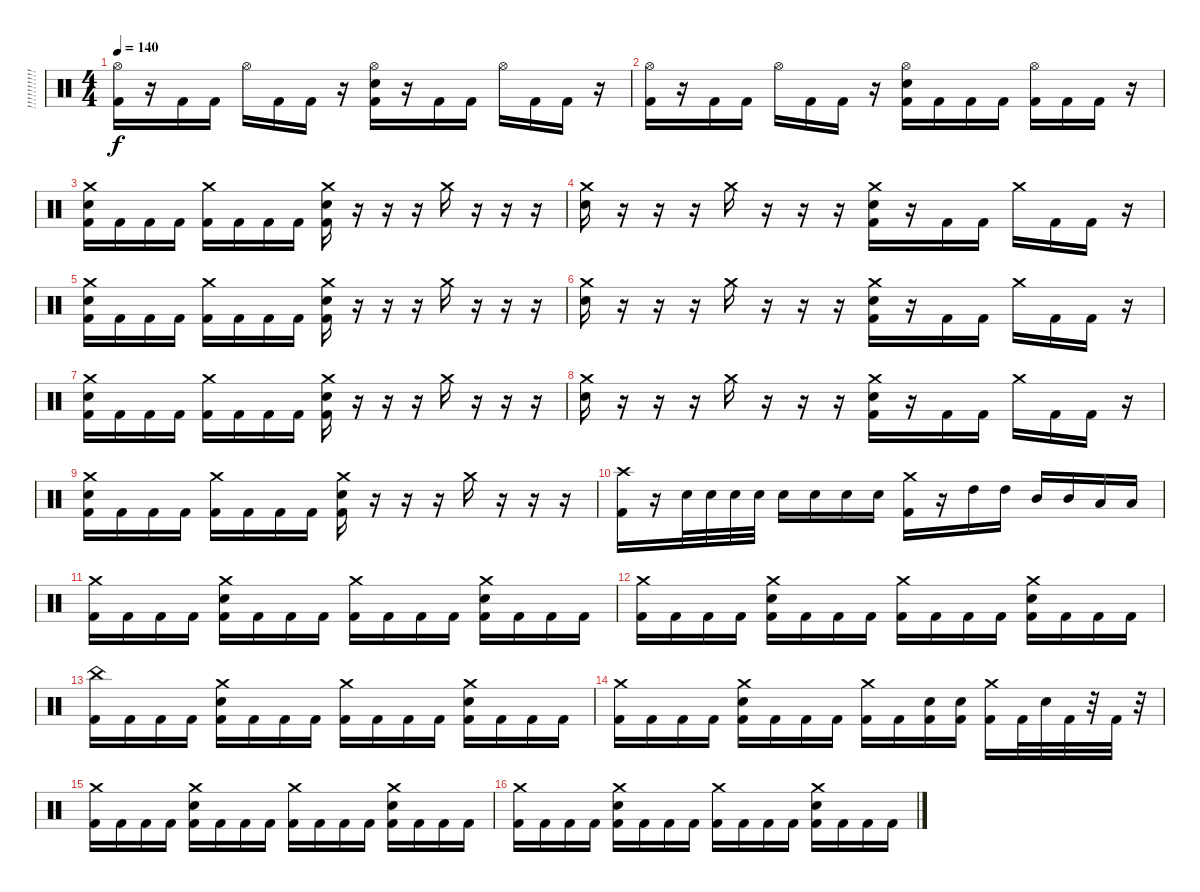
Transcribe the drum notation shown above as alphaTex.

\track ("!!!!!!!!!!!! 4" "!!!!!!!!!!") {instrument percussion}
\staff {score}
\articulation defaults
\ts (4 4)
\tempo 140
\clef neutral
\ks c
("Hi-Hat (open)" "Kick (hit) 2").16{dy f} r.16 "Kick (hit) 2".16 "Kick (hit) 2".16 "Hi-Hat (open)".16 "Kick (hit) 2".16 "Kick (hit) 2".16 r.16 ("Hi-Hat (open)" "Electric Snare (hit)" "Kick (hit) 2").16 r.16 "Kick (hit) 2".16 "Kick (hit) 2".16 "Hi-Hat (open)".16 "Kick (hit) 2".16 "Kick (hit) 2".16 r.16 |
("Hi-Hat (open)" "Kick (hit) 2").16 r.16 "Kick (hit) 2".16 "Kick (hit) 2".16 "Hi-Hat (open)".16 "Kick (hit) 2".16 "Kick (hit) 2".16 r.16 ("Hi-Hat (open)" "Electric Snare (hit)" "Kick (hit) 2").16 "Kick (hit) 2".16 "Kick (hit) 2".16 "Kick (hit) 2".16 ("Hi-Hat (open)" "Kick (hit) 2").16 "Kick (hit) 2".16 "Kick (hit) 2".16 r.16 |
("Crash medium (hit)" "Electric Snare (hit)" "Kick (hit) 2").16 "Kick (hit) 2".16 "Kick (hit) 2".16 "Kick (hit) 2".16 ("Crash medium (hit)" "Kick (hit) 2").16 "Kick (hit) 2".16 "Kick (hit) 2".16 "Kick (hit) 2".16 ("Crash medium (hit)" "Electric Snare (hit)" "Kick (hit) 2").16 r.16 r.16 r.16 "Crash medium (hit)".16 r.16 r.16 r.16 |
("Crash medium (hit)" "Electric Snare (hit)").16 r.16 r.16 r.16 "Crash medium (hit)".16 r.16 r.16 r.16 ("Crash medium (hit)" "Electric Snare (hit)" "Kick (hit) 2").16 r.16 "Kick (hit) 2".16 "Kick (hit) 2".16 "Crash medium (hit)".16 "Kick (hit) 2".16 "Kick (hit) 2".16 r.16 |
("Crash medium (hit)" "Electric Snare (hit)" "Kick (hit) 2").16 "Kick (hit) 2".16 "Kick (hit) 2".16 "Kick (hit) 2".16 ("Crash medium (hit)" "Kick (hit) 2").16 "Kick (hit) 2".16 "Kick (hit) 2".16 "Kick (hit) 2".16 ("Crash medium (hit)" "Electric Snare (hit)" "Kick (hit) 2").16 r.16 r.16 r.16 "Crash medium (hit)".16 r.16 r.16 r.16 |
("Crash medium (hit)" "Electric Snare (hit)").16 r.16 r.16 r.16 "Crash medium (hit)".16 r.16 r.16 r.16 ("Crash medium (hit)" "Electric Snare (hit)" "Kick (hit) 2").16 r.16 "Kick (hit) 2".16 "Kick (hit) 2".16 "Crash medium (hit)".16 "Kick (hit) 2".16 "Kick (hit) 2".16 r.16 |
("Crash medium (hit)" "Electric Snare (hit)" "Kick (hit) 2").16 "Kick (hit) 2".16 "Kick (hit) 2".16 "Kick (hit) 2".16 ("Crash medium (hit)" "Kick (hit) 2").16 "Kick (hit) 2".16 "Kick (hit) 2".16 "Kick (hit) 2".16 ("Crash medium (hit)" "Electric Snare (hit)" "Kick (hit) 2").16 r.16 r.16 r.16 "Crash medium (hit)".16 r.16 r.16 r.16 |
("Crash medium (hit)" "Electric Snare (hit)").16 r.16 r.16 r.16 "Crash medium (hit)".16 r.16 r.16 r.16 ("Crash medium (hit)" "Electric Snare (hit)" "Kick (hit) 2").16 r.16 "Kick (hit) 2".16 "Kick (hit) 2".16 "Crash medium (hit)".16 "Kick (hit) 2".16 "Kick (hit) 2".16 r.16 |
("Crash medium (hit)" "Electric Snare (hit)" "Kick (hit) 2").16 "Kick (hit) 2".16 "Kick (hit) 2".16 "Kick (hit) 2".16 ("Crash medium (hit)" "Kick (hit) 2").16 "Kick (hit) 2".16 "Kick (hit) 2".16 "Kick (hit) 2".16 ("Crash medium (hit)" "Electric Snare (hit)" "Kick (hit) 2").16 r.16 r.16 r.16 "Crash medium (hit)".16 r.16 r.16 r.16 |
("Crash high (hit)" "Kick (hit) 2").16 r.16 "Electric Snare (hit)".32 "Electric Snare (hit)".32 "Electric Snare (hit)".32 "Electric Snare (hit)".32 "Electric Snare (hit)".16 "Electric Snare (hit)".16 "Electric Snare (hit)".16 "Electric Snare (hit)".16 ("Crash medium (hit)" "Kick (hit) 2").16 r.16 "High Tom (hit)".16 "High Tom (hit)".16 "Mid Tom (hit)".16 "Mid Tom (hit)".16 "Low Tom (hit)".16 "Low Tom (hit)".16 |
("Crash medium (hit)" "Kick (hit) 2").16 "Kick (hit) 2".16 "Kick (hit) 2".16 "Kick (hit) 2".16 ("Crash medium (hit)" "Electric Snare (hit)" "Kick (hit) 2").16 "Kick (hit) 2".16 "Kick (hit) 2".16 "Kick (hit) 2".16 ("Crash medium (hit)" "Kick (hit) 2").16 "Kick (hit) 2".16 "Kick (hit) 2".16 "Kick (hit) 2".16 ("Crash medium (hit)" "Electric Snare (hit)" "Kick (hit) 2").16 "Kick (hit) 2".16 "Kick (hit) 2".16 "Kick (hit) 2".16 |
("Crash medium (hit)" "Kick (hit) 2").16 "Kick (hit) 2".16 "Kick (hit) 2".16 "Kick (hit) 2".16 ("Crash medium (hit)" "Electric Snare (hit)" "Kick (hit) 2").16 "Kick (hit) 2".16 "Kick (hit) 2".16 "Kick (hit) 2".16 ("Crash medium (hit)" "Kick (hit) 2").16 "Kick (hit) 2".16 "Kick (hit) 2".16 "Kick (hit) 2".16 ("Crash medium (hit)" "Electric Snare (hit)" "Kick (hit) 2").16 "Kick (hit) 2".16 "Kick (hit) 2".16 "Kick (hit) 2".16 |
("China (hit)" "Kick (hit) 2").16 "Kick (hit) 2".16 "Kick (hit) 2".16 "Kick (hit) 2".16 ("Crash medium (hit)" "Electric Snare (hit)" "Kick (hit) 2").16 "Kick (hit) 2".16 "Kick (hit) 2".16 "Kick (hit) 2".16 ("Crash medium (hit)" "Kick (hit) 2").16 "Kick (hit) 2".16 "Kick (hit) 2".16 "Kick (hit) 2".16 ("Crash medium (hit)" "Electric Snare (hit)" "Kick (hit) 2").16 "Kick (hit) 2".16 "Kick (hit) 2".16 "Kick (hit) 2".16 |
("Crash medium (hit)" "Kick (hit) 2").16 "Kick (hit) 2".16 "Kick (hit) 2".16 "Kick (hit) 2".16 ("Crash medium (hit)" "Electric Snare (hit)" "Kick (hit) 2").16 "Kick (hit) 2".16 "Kick (hit) 2".16 "Kick (hit) 2".16 ("Crash medium (hit)" "Kick (hit) 2").16 "Kick (hit) 2".16 ("Electric Snare (hit)" "Kick (hit) 2").16 ("Electric Snare (hit)" "Kick (hit) 2").16 ("Crash medium (hit)" "Kick (hit) 2").16 "Kick (hit) 2".32 "Electric Snare (hit)".32 "Kick (hit) 2".32 r.32 "Kick (hit) 2".32 r.32 |
("Crash medium (hit)" "Kick (hit) 2").16 "Kick (hit) 2".16 "Kick (hit) 2".16 "Kick (hit) 2".16 ("Crash medium (hit)" "Electric Snare (hit)" "Kick (hit) 2").16 "Kick (hit) 2".16 "Kick (hit) 2".16 "Kick (hit) 2".16 ("Crash medium (hit)" "Kick (hit) 2").16 "Kick (hit) 2".16 "Kick (hit) 2".16 "Kick (hit) 2".16 ("Crash medium (hit)" "Electric Snare (hit)" "Kick (hit) 2").16 "Kick (hit) 2".16 "Kick (hit) 2".16 "Kick (hit) 2".16 |
("Crash medium (hit)" "Kick (hit) 2").16 "Kick (hit) 2".16 "Kick (hit) 2".16 "Kick (hit) 2".16 ("Crash medium (hit)" "Electric Snare (hit)" "Kick (hit) 2").16 "Kick (hit) 2".16 "Kick (hit) 2".16 "Kick (hit) 2".16 ("Crash medium (hit)" "Kick (hit) 2").16 "Kick (hit) 2".16 "Kick (hit) 2".16 "Kick (hit) 2".16 ("Crash medium (hit)" "Electric Snare (hit)" "Kick (hit) 2").16 "Kick (hit) 2".16 "Kick (hit) 2".16 "Kick (hit) 2".16
